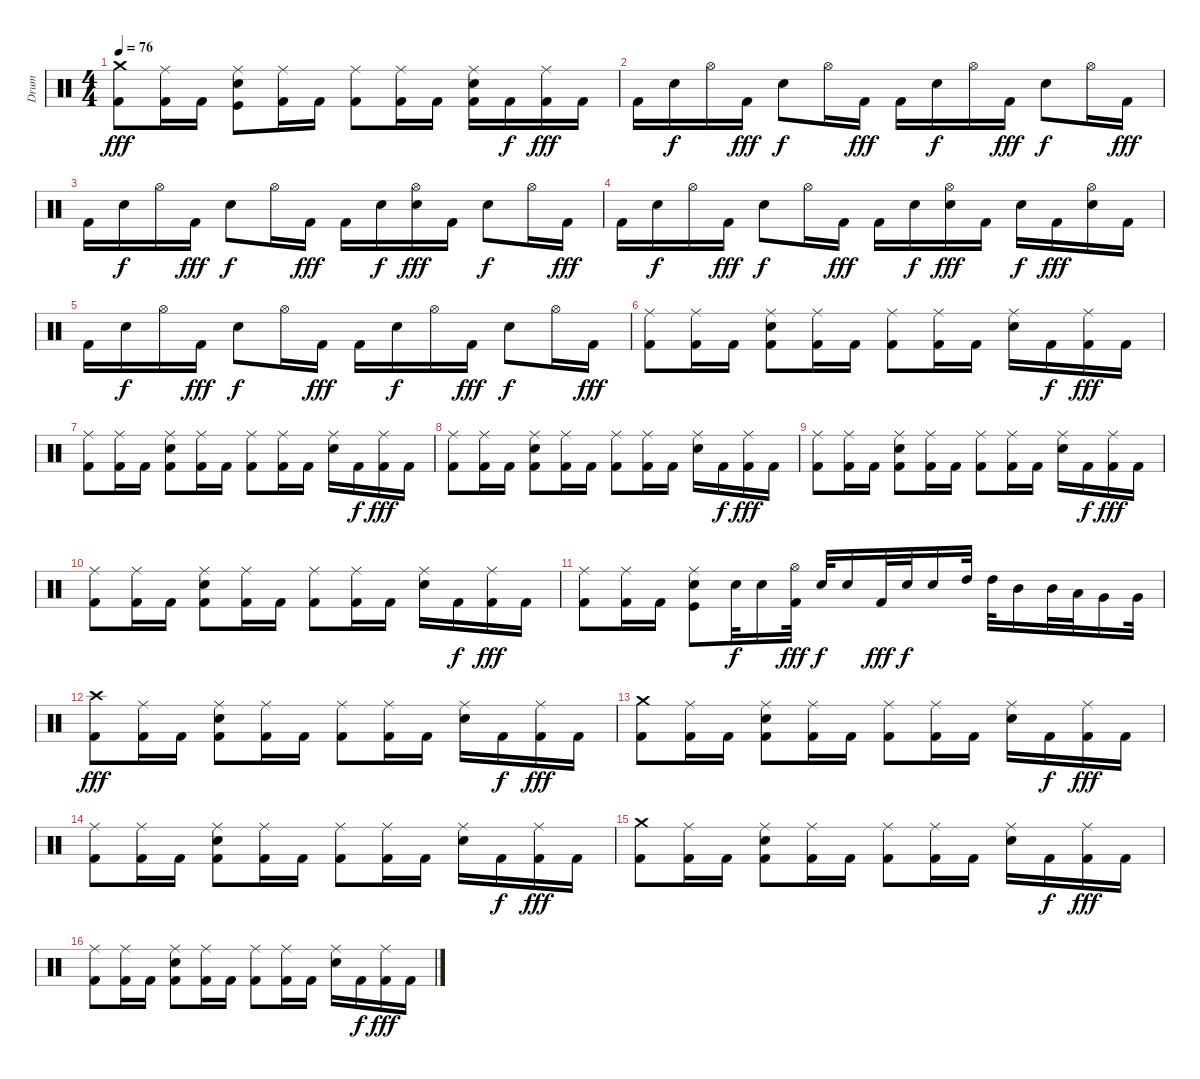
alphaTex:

\track ("Drum" "Drum") {instrument percussion}
\staff {score}
\articulation defaults
\ts (4 4)
\tempo 76
\clef neutral
\ks c
("Kick (hit) 2" "Crash medium (hit)").8{dy fff} ("Kick (hit) 2" "Ride (middle)").16 "Kick (hit) 2".16 ("Kick (hit)" "Electric Snare (hit)" "Ride (middle)").8 ("Kick (hit) 2" "Ride (middle)").16 "Kick (hit) 2".16 ("Kick (hit) 2" "Ride (middle)").8 ("Kick (hit) 2" "Ride (middle)").16 "Kick (hit) 2".16 ("Kick (hit) 2" "Electric Snare (hit)" "Ride (middle)").16 "Kick (hit) 2".16{dy f} ("Kick (hit) 2" "Ride (middle)").16{dy fff} "Kick (hit) 2".16 |
"Kick (hit) 2".16 "Electric Snare (hit)".16{dy f} "Hi-Hat (open)".16 "Kick (hit) 2".16{dy fff} "Electric Snare (hit)".8{dy f} "Hi-Hat (open)".16 "Kick (hit) 2".16{dy fff} "Kick (hit) 2".16 "Electric Snare (hit)".16{dy f} "Hi-Hat (open)".16 "Kick (hit) 2".16{dy fff} "Electric Snare (hit)".8{dy f} "Hi-Hat (open)".16 "Kick (hit) 2".16{dy fff} |
"Kick (hit) 2".16 "Electric Snare (hit)".16{dy f} "Hi-Hat (open)".16 "Kick (hit) 2".16{dy fff} "Electric Snare (hit)".8{dy f} "Hi-Hat (open)".16 "Kick (hit) 2".16{dy fff} "Kick (hit) 2".16 "Electric Snare (hit)".16{dy f} ("Electric Snare (hit)" "Hi-Hat (open)").16{dy fff} "Kick (hit) 2".16 "Electric Snare (hit)".8{dy f} "Hi-Hat (open)".16 "Kick (hit) 2".16{dy fff} |
"Kick (hit) 2".16 "Electric Snare (hit)".16{dy f} "Hi-Hat (open)".16 "Kick (hit) 2".16{dy fff} "Electric Snare (hit)".8{dy f} "Hi-Hat (open)".16 "Kick (hit) 2".16{dy fff} "Kick (hit) 2".16 "Electric Snare (hit)".16{dy f} ("Electric Snare (hit)" "Hi-Hat (open)").16{dy fff} "Kick (hit) 2".16 "Electric Snare (hit)".16{dy f} "Kick (hit) 2".16{dy fff} ("Electric Snare (hit)" "Hi-Hat (open)").16 "Kick (hit) 2".16 |
"Kick (hit) 2".16 "Electric Snare (hit)".16{dy f} "Hi-Hat (open)".16 "Kick (hit) 2".16{dy fff} "Electric Snare (hit)".8{dy f} "Hi-Hat (open)".16 "Kick (hit) 2".16{dy fff} "Kick (hit) 2".16 "Electric Snare (hit)".16{dy f} "Hi-Hat (open)".16 "Kick (hit) 2".16{dy fff} "Electric Snare (hit)".8{dy f} "Hi-Hat (open)".16 "Kick (hit) 2".16{dy fff} |
("Kick (hit) 2" "Ride (middle)").8 ("Kick (hit) 2" "Ride (middle)").16 "Kick (hit) 2".16 ("Kick (hit) 2" "Electric Snare (hit)" "Ride (middle)").8 ("Kick (hit) 2" "Ride (middle)").16 "Kick (hit) 2".16 ("Kick (hit) 2" "Ride (middle)").8 ("Kick (hit) 2" "Ride (middle)").16 "Kick (hit) 2".16 ("Electric Snare (hit)" "Ride (middle)").16 "Kick (hit) 2".16{dy f} ("Kick (hit) 2" "Ride (middle)").16{dy fff} "Kick (hit) 2".16 |
("Kick (hit) 2" "Ride (middle)").8 ("Kick (hit) 2" "Ride (middle)").16 "Kick (hit) 2".16 ("Kick (hit) 2" "Electric Snare (hit)" "Ride (middle)").8 ("Kick (hit) 2" "Ride (middle)").16 "Kick (hit) 2".16 ("Kick (hit) 2" "Ride (middle)").8 ("Kick (hit) 2" "Ride (middle)").16 "Kick (hit) 2".16 ("Electric Snare (hit)" "Ride (middle)").16 "Kick (hit) 2".16{dy f} ("Kick (hit) 2" "Ride (middle)").16{dy fff} "Kick (hit) 2".16 |
("Kick (hit) 2" "Ride (middle)").8 ("Kick (hit) 2" "Ride (middle)").16 "Kick (hit) 2".16 ("Kick (hit) 2" "Electric Snare (hit)" "Ride (middle)").8 ("Kick (hit) 2" "Ride (middle)").16 "Kick (hit) 2".16 ("Kick (hit) 2" "Ride (middle)").8 ("Kick (hit) 2" "Ride (middle)").16 "Kick (hit) 2".16 ("Electric Snare (hit)" "Ride (middle)").16 "Kick (hit) 2".16{dy f} ("Kick (hit) 2" "Ride (middle)").16{dy fff} "Kick (hit) 2".16 |
("Kick (hit) 2" "Ride (middle)").8 ("Kick (hit) 2" "Ride (middle)").16 "Kick (hit) 2".16 ("Kick (hit) 2" "Electric Snare (hit)" "Ride (middle)").8 ("Kick (hit) 2" "Ride (middle)").16 "Kick (hit) 2".16 ("Kick (hit) 2" "Ride (middle)").8 ("Kick (hit) 2" "Ride (middle)").16 "Kick (hit) 2".16 ("Electric Snare (hit)" "Ride (middle)").16 "Kick (hit) 2".16{dy f} ("Kick (hit) 2" "Ride (middle)").16{dy fff} "Kick (hit) 2".16 |
("Kick (hit) 2" "Ride (middle)").8 ("Kick (hit) 2" "Ride (middle)").16 "Kick (hit) 2".16 ("Kick (hit) 2" "Electric Snare (hit)" "Ride (middle)").8 ("Kick (hit) 2" "Ride (middle)").16 "Kick (hit) 2".16 ("Kick (hit) 2" "Ride (middle)").8 ("Kick (hit) 2" "Ride (middle)").16 "Kick (hit) 2".16 ("Electric Snare (hit)" "Ride (middle)").16 "Kick (hit) 2".16{dy f} ("Kick (hit) 2" "Ride (middle)").16{dy fff} "Kick (hit) 2".16 |
("Kick (hit) 2" "Ride (middle)").8 ("Kick (hit) 2" "Ride (middle)").16 "Kick (hit) 2".16 ("Kick (hit)" "Electric Snare (hit)" "Ride (middle)").8 "Electric Snare (hit)".32{dy f} "Electric Snare (hit)".16 ("Kick (hit) 2" "Hi-Hat (open)").32{dy fff} "Electric Snare (hit)".32{dy f} "Electric Snare (hit)".16 "Kick (hit) 2".32{dy fff} "Electric Snare (hit)".32{dy f} "Electric Snare (hit)".16 "High Tom (hit)".32 "High Tom (hit)".32 "Mid Tom (hit)".16 "Mid Tom (hit)".32 "Low Tom (hit)".32 "Very Low Tom (hit)".16 "Very Low Tom (hit)".32 |
("Kick (hit) 2" "Crash high (hit)").8{dy fff} ("Kick (hit) 2" "Ride (middle)").16 "Kick (hit) 2".16 ("Kick (hit) 2" "Electric Snare (hit)" "Ride (middle)").8 ("Kick (hit) 2" "Ride (middle)").16 "Kick (hit) 2".16 ("Kick (hit) 2" "Ride (middle)").8 ("Kick (hit) 2" "Ride (middle)").16 "Kick (hit) 2".16 ("Electric Snare (hit)" "Ride (middle)").16 "Kick (hit) 2".16{dy f} ("Kick (hit) 2" "Ride (middle)").16{dy fff} "Kick (hit) 2".16 |
("Kick (hit) 2" "Crash medium (hit)").8 ("Kick (hit) 2" "Ride (middle)").16 "Kick (hit) 2".16 ("Kick (hit) 2" "Electric Snare (hit)" "Ride (middle)").8 ("Kick (hit) 2" "Ride (middle)").16 "Kick (hit) 2".16 ("Kick (hit) 2" "Ride (middle)").8 ("Kick (hit) 2" "Ride (middle)").16 "Kick (hit) 2".16 ("Electric Snare (hit)" "Ride (middle)").16 "Kick (hit) 2".16{dy f} ("Kick (hit) 2" "Ride (middle)").16{dy fff} "Kick (hit) 2".16 |
("Kick (hit) 2" "Ride (middle)").8 ("Kick (hit) 2" "Ride (middle)").16 "Kick (hit) 2".16 ("Kick (hit) 2" "Electric Snare (hit)" "Ride (middle)").8 ("Kick (hit) 2" "Ride (middle)").16 "Kick (hit) 2".16 ("Kick (hit) 2" "Ride (middle)").8 ("Kick (hit) 2" "Ride (middle)").16 "Kick (hit) 2".16 ("Electric Snare (hit)" "Ride (middle)").16 "Kick (hit) 2".16{dy f} ("Kick (hit) 2" "Ride (middle)").16{dy fff} "Kick (hit) 2".16 |
("Kick (hit) 2" "Crash medium (hit)").8 ("Kick (hit) 2" "Ride (middle)").16 "Kick (hit) 2".16 ("Kick (hit) 2" "Electric Snare (hit)" "Ride (middle)").8 ("Kick (hit) 2" "Ride (middle)").16 "Kick (hit) 2".16 ("Kick (hit) 2" "Ride (middle)").8 ("Kick (hit) 2" "Ride (middle)").16 "Kick (hit) 2".16 ("Electric Snare (hit)" "Ride (middle)").16 "Kick (hit) 2".16{dy f} ("Kick (hit) 2" "Ride (middle)").16{dy fff} "Kick (hit) 2".16 |
("Kick (hit) 2" "Ride (middle)").8 ("Kick (hit) 2" "Ride (middle)").16 "Kick (hit) 2".16 ("Kick (hit) 2" "Electric Snare (hit)" "Ride (middle)").8 ("Kick (hit) 2" "Ride (middle)").16 "Kick (hit) 2".16 ("Kick (hit) 2" "Ride (middle)").8 ("Kick (hit) 2" "Ride (middle)").16 "Kick (hit) 2".16 ("Electric Snare (hit)" "Ride (middle)").16 "Kick (hit) 2".16{dy f} ("Kick (hit) 2" "Ride (middle)").16{dy fff} "Kick (hit) 2".16
